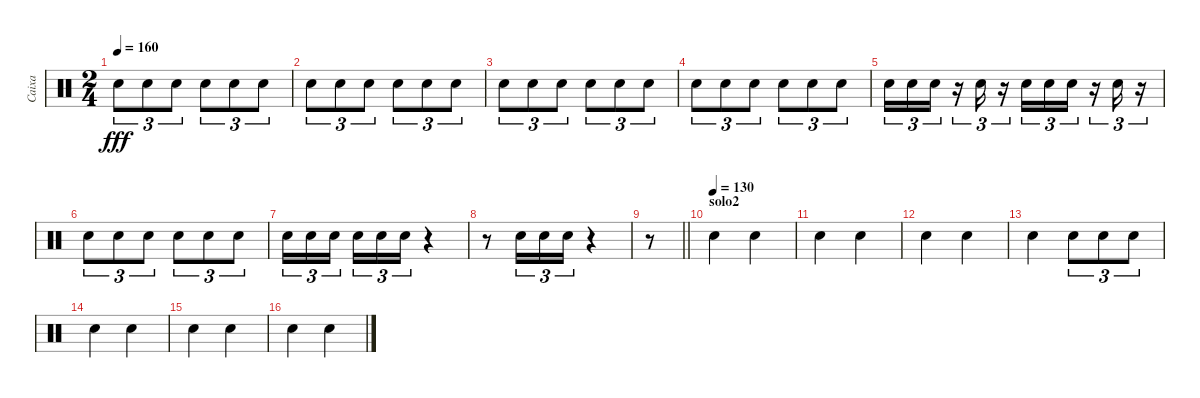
\track ("Caixa" "Caixa") {instrument percussion}
\staff {score}
\articulation defaults
\ts (2 4)
\tempo 160
\clef neutral
\ks c "Electric Snare (hit)".8{tu (3 2) dy fff} "Electric Snare (hit)".8{tu (3 2)} "Electric Snare (hit)".8{tu (3 2)} "Electric Snare (hit)".8{tu (3 2)} "Electric Snare (hit)".8{tu (3 2)} "Electric Snare (hit)".8{tu (3 2)}
|
"Electric Snare (hit)".8{tu (3 2)} "Electric Snare (hit)".8{tu (3 2)} "Electric Snare (hit)".8{tu (3 2)} "Electric Snare (hit)".8{tu (3 2)} "Electric Snare (hit)".8{tu (3 2)} "Electric Snare (hit)".8{tu (3 2)} |
"Electric Snare (hit)".8{tu (3 2)} "Electric Snare (hit)".8{tu (3 2)} "Electric Snare (hit)".8{tu (3 2)} "Electric Snare (hit)".8{tu (3 2)} "Electric Snare (hit)".8{tu (3 2)} "Electric Snare (hit)".8{tu (3 2)} |
"Electric Snare (hit)".8{tu (3 2)} "Electric Snare (hit)".8{tu (3 2)} "Electric Snare (hit)".8{tu (3 2)} "Electric Snare (hit)".8{tu (3 2)} "Electric Snare (hit)".8{tu (3 2)} "Electric Snare (hit)".8{tu (3 2)} |
"Electric Snare (hit)".16{tu (3 2)} "Electric Snare (hit)".16{tu (3 2)} "Electric Snare (hit)".16{tu (3 2)} r.16{tu (3 2)} "Electric Snare (hit)".16{tu (3 2)} r.16{tu (3 2)} "Electric Snare (hit)".16{tu (3 2)} "Electric Snare (hit)".16{tu (3 2)} "Electric Snare (hit)".16{tu (3 2)} r.16{tu (3 2)} "Electric Snare (hit)".16{tu (3 2)} r.16{tu (3 2)} |
"Electric Snare (hit)".8{tu (3 2)} "Electric Snare (hit)".8{tu (3 2)} "Electric Snare (hit)".8{tu (3 2)} "Electric Snare (hit)".8{tu (3 2)} "Electric Snare (hit)".8{tu (3 2)} "Electric Snare (hit)".8{tu (3 2)} |
"Electric Snare (hit)".16{tu (3 2)} "Electric Snare (hit)".16{tu (3 2)} "Electric Snare (hit)".16{tu (3 2)} "Electric Snare (hit)".16{tu (3 2)} "Electric Snare (hit)".16{tu (3 2)} "Electric Snare (hit)".16{tu (3 2)} r.4 |
r.8 "Electric Snare (hit)".16{tu (3 2)} "Electric Snare (hit)".16{tu (3 2)} "Electric Snare (hit)".16{tu (3 2)} r.4 |
\barLineRight lightlight
r.8 |
\section ("" "solo2")
\tempo (130)
"Electric Snare (hit)".4 "Electric Snare (hit)".4 |
"Electric Snare (hit)".4 "Electric Snare (hit)".4 |
"Electric Snare (hit)".4 "Electric Snare (hit)".4 |
"Electric Snare (hit)".4 "Electric Snare (hit)".8{tu (3 2)} "Electric Snare (hit)".8{tu (3 2)} "Electric Snare (hit)".8{tu (3 2)} |
"Electric Snare (hit)".4 "Electric Snare (hit)".4 |
"Electric Snare (hit)".4 "Electric Snare (hit)".4 |
"Electric Snare (hit)".4 "Electric Snare (hit)".4
